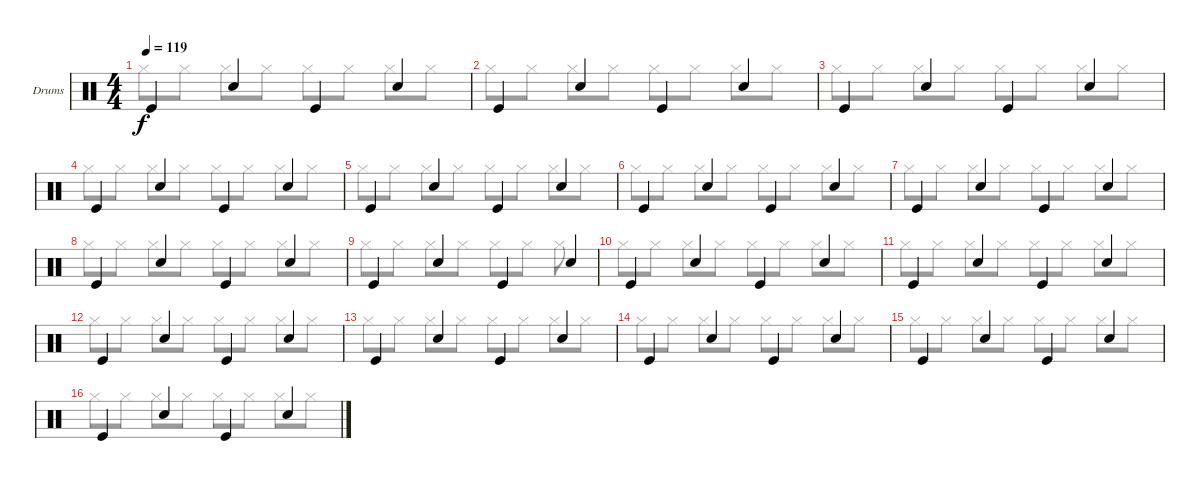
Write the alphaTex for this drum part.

\defaultSystemsLayout 4
\bracketExtendMode groupsimilarinstruments
\firstSystemTrackNameOrientation horizontal
\otherSystemsTrackNameOrientation horizontal
\track ("Drumkit" "Drums") {instrument percussion}
\staff {score}
\articulation defaults
\voice
\ts (4 4)
\tempo 119
\clef neutral
\ks c "Kick (hit)".4{dy f} "Snare (hit) 2".4 "Kick (hit)".4 "Snare (hit) 2".4
|
\scale
0.302177 "Kick (hit)".4 "Snare (hit) 2".4 "Kick (hit)".4 "Snare (hit) 2".4 |
\scale
0.231622 "Kick (hit)".4 "Snare (hit) 2".4 "Kick (hit)".4 "Snare (hit) 2".4 |
\scale
0.23877 "Kick (hit)".4 "Snare (hit) 2".4 "Kick (hit)".4 "Snare (hit) 2".4 |
\scale
0.226766 "Kick (hit)".4 "Snare (hit) 2".4 "Kick (hit)".4 "Snare (hit) 2".4 |
"Kick (hit)".4 "Snare (hit) 2".4 "Kick (hit)".4 "Snare (hit) 2".4 |
"Kick (hit)".4 "Snare (hit) 2".4 "Kick (hit)".4 "Snare (hit) 2".4 |
"Kick (hit)".4 "Snare (hit) 2".4 "Kick (hit)".4 "Snare (hit) 2".4 |
"Kick (hit)".4 "Snare (hit) 2".4 "Kick (hit)".4 "Snare (hit) 2".4 |
"Kick (hit)".4 "Snare (hit) 2".4 "Kick (hit)".4 "Snare (hit) 2".4 |
"Kick (hit)".4 "Snare (hit) 2".4 "Kick (hit)".4 "Snare (hit) 2".4 |
"Kick (hit)".4 "Snare (hit) 2".4 "Kick (hit)".4 "Snare (hit) 2".4 |
"Kick (hit)".4 "Snare (hit) 2".4 "Kick (hit)".4 "Snare (hit) 2".4 |
"Kick (hit)".4 "Snare (hit) 2".4 "Kick (hit)".4 "Snare (hit) 2".4 |
"Kick (hit)".4 "Snare (hit) 2".4 "Kick (hit)".4 "Snare (hit) 2".4 |
"Kick (hit)".4 "Snare (hit) 2".4 "Kick (hit)".4 "Snare (hit) 2".4
\voice
\clef neutral
\ottava regular
\simile none
\ks c "Hi-Hat (closed)".8{dy f} "Hi-Hat (closed)".8 "Hi-Hat (closed)".8 "Hi-Hat (closed)".8 "Hi-Hat (closed)".8 "Hi-Hat (closed)".8 "Hi-Hat (closed)".8 "Hi-Hat (closed)".8
|
"Hi-Hat (closed)".8 "Hi-Hat (closed)".8 "Hi-Hat (closed)".8 "Hi-Hat (closed)".8 "Hi-Hat (closed)".8 "Hi-Hat (closed)".8 "Hi-Hat (closed)".8 "Hi-Hat (closed)".8 |
"Hi-Hat (closed)".8 "Hi-Hat (closed)".8 "Hi-Hat (closed)".8 "Hi-Hat (closed)".8 "Hi-Hat (closed)".8 "Hi-Hat (closed)".8 "Hi-Hat (closed)".8 "Hi-Hat (closed)".8 |
"Hi-Hat (closed)".8 "Hi-Hat (closed)".8 "Hi-Hat (closed)".8 "Hi-Hat (closed)".8 "Hi-Hat (closed)".8 "Hi-Hat (closed)".8 "Hi-Hat (closed)".8 "Hi-Hat (closed)".8 |
"Hi-Hat (closed)".8 "Hi-Hat (closed)".8 "Hi-Hat (closed)".8 "Hi-Hat (closed)".8 "Hi-Hat (closed)".8 "Hi-Hat (closed)".8 "Hi-Hat (closed)".8 "Hi-Hat (closed)".8 |
"Hi-Hat (closed)".8 "Hi-Hat (closed)".8 "Hi-Hat (closed)".8 "Hi-Hat (closed)".8 "Hi-Hat (closed)".8 "Hi-Hat (closed)".8 "Hi-Hat (closed)".8 "Hi-Hat (closed)".8 |
"Hi-Hat (closed)".8 "Hi-Hat (closed)".8 "Hi-Hat (closed)".8 "Hi-Hat (closed)".8 "Hi-Hat (closed)".8 "Hi-Hat (closed)".8 "Hi-Hat (closed)".8 "Hi-Hat (closed)".8 |
"Hi-Hat (closed)".8 "Hi-Hat (closed)".8 "Hi-Hat (closed)".8 "Hi-Hat (closed)".8 "Hi-Hat (closed)".8 "Hi-Hat (closed)".8 "Hi-Hat (closed)".8 "Hi-Hat (closed)".8 |
"Hi-Hat (closed)".8 "Hi-Hat (closed)".8 "Hi-Hat (closed)".8 "Hi-Hat (closed)".8 "Hi-Hat (closed)".8 "Hi-Hat (closed)".8 "Hi-Hat (closed)".8 |
"Hi-Hat (closed)".8 "Hi-Hat (closed)".8 "Hi-Hat (closed)".8 "Hi-Hat (closed)".8 "Hi-Hat (closed)".8 "Hi-Hat (closed)".8 "Hi-Hat (closed)".8 "Hi-Hat (closed)".8 |
"Hi-Hat (closed)".8 "Hi-Hat (closed)".8 "Hi-Hat (closed)".8 "Hi-Hat (closed)".8 "Hi-Hat (closed)".8 "Hi-Hat (closed)".8 "Hi-Hat (closed)".8 "Hi-Hat (closed)".8 |
"Hi-Hat (closed)".8 "Hi-Hat (closed)".8 "Hi-Hat (closed)".8 "Hi-Hat (closed)".8 "Hi-Hat (closed)".8 "Hi-Hat (closed)".8 "Hi-Hat (closed)".8 "Hi-Hat (closed)".8 |
"Hi-Hat (closed)".8 "Hi-Hat (closed)".8 "Hi-Hat (closed)".8 "Hi-Hat (closed)".8 "Hi-Hat (closed)".8 "Hi-Hat (closed)".8 "Hi-Hat (closed)".8 "Hi-Hat (closed)".8 |
"Hi-Hat (closed)".8 "Hi-Hat (closed)".8 "Hi-Hat (closed)".8 "Hi-Hat (closed)".8 "Hi-Hat (closed)".8 "Hi-Hat (closed)".8 "Hi-Hat (closed)".8 "Hi-Hat (closed)".8 |
"Hi-Hat (closed)".8 "Hi-Hat (closed)".8 "Hi-Hat (closed)".8 "Hi-Hat (closed)".8 "Hi-Hat (closed)".8 "Hi-Hat (closed)".8 "Hi-Hat (closed)".8 "Hi-Hat (closed)".8 |
"Hi-Hat (closed)".8 "Hi-Hat (closed)".8 "Hi-Hat (closed)".8 "Hi-Hat (closed)".8 "Hi-Hat (closed)".8 "Hi-Hat (closed)".8 "Hi-Hat (closed)".8 "Hi-Hat (closed)".8
